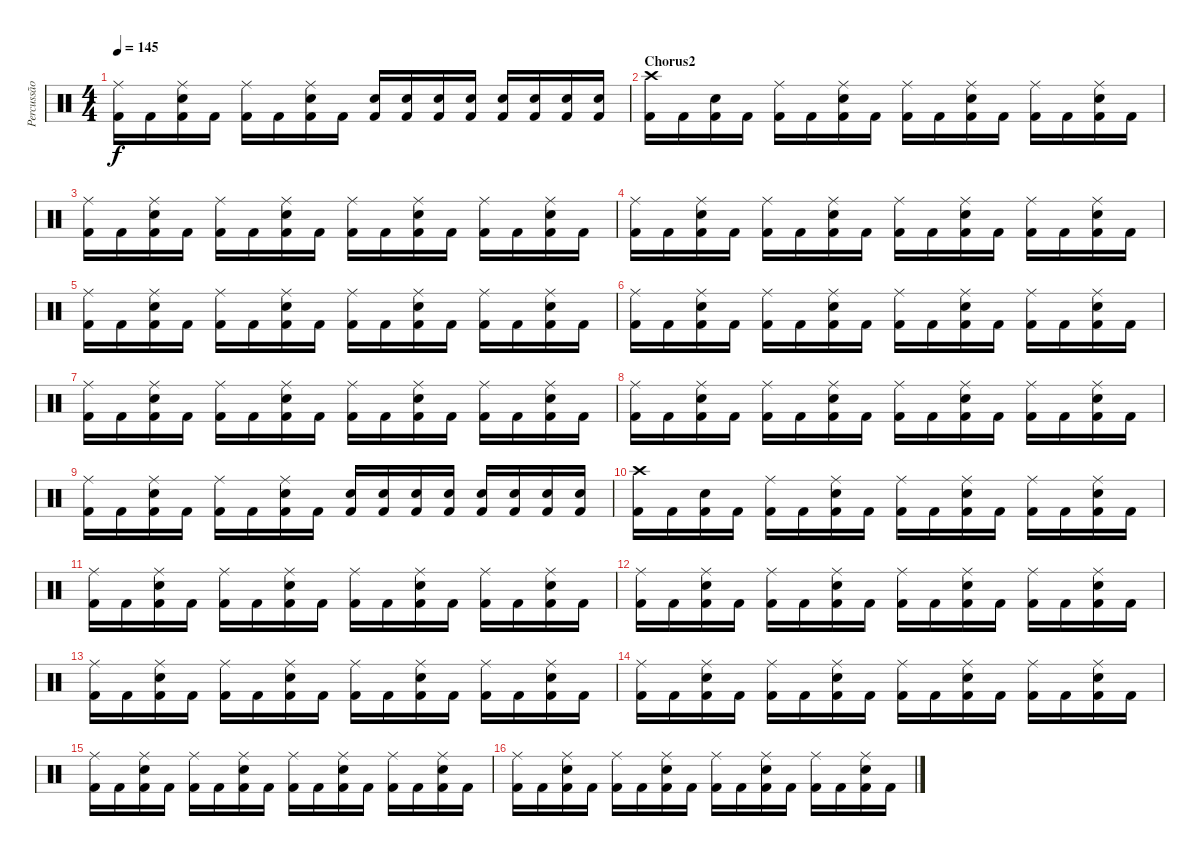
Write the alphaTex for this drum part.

\track ("Percussão" "Percussão") {instrument percussion}
\staff {score}
\articulation defaults
\ts (4 4)
\tempo 145
\clef neutral
\ks c
("Kick (hit) 2" "Ride (middle)").16{dy f} "Kick (hit) 2".16 ("Kick (hit) 2" "Snare (hit) 2" "Ride (middle)").16 "Kick (hit) 2".16 ("Kick (hit) 2" "Ride (middle)").16 "Kick (hit) 2".16 ("Kick (hit) 2" "Snare (hit) 2" "Ride (middle)").16 "Kick (hit) 2".16 ("Kick (hit) 2" "Snare (hit) 2").16 ("Kick (hit) 2" "Snare (hit) 2").16 ("Kick (hit) 2" "Snare (hit) 2").16 ("Kick (hit) 2" "Snare (hit) 2").16 ("Kick (hit) 2" "Snare (hit) 2").16 ("Kick (hit) 2" "Snare (hit) 2").16 ("Kick (hit) 2" "Snare (hit) 2").16 ("Kick (hit) 2" "Snare (hit) 2").16 |
\section ("" "Chorus2")
("Kick (hit) 2" "Crash high (hit)").16 "Kick (hit) 2".16 ("Kick (hit) 2" "Snare (hit) 2").16 "Kick (hit) 2".16 ("Kick (hit) 2" "Ride (middle)").16 "Kick (hit) 2".16 ("Kick (hit) 2" "Snare (hit) 2" "Ride (middle)").16 "Kick (hit) 2".16 ("Kick (hit) 2" "Ride (middle)").16 "Kick (hit) 2".16 ("Kick (hit) 2" "Snare (hit) 2" "Ride (middle)").16 "Kick (hit) 2".16 ("Kick (hit) 2" "Ride (middle)").16 "Kick (hit) 2".16 ("Kick (hit) 2" "Snare (hit) 2" "Ride (middle)").16 "Kick (hit) 2".16 |
("Kick (hit) 2" "Ride (middle)").16 "Kick (hit) 2".16 ("Kick (hit) 2" "Snare (hit) 2" "Ride (middle)").16 "Kick (hit) 2".16 ("Kick (hit) 2" "Ride (middle)").16 "Kick (hit) 2".16 ("Kick (hit) 2" "Snare (hit) 2" "Ride (middle)").16 "Kick (hit) 2".16 ("Kick (hit) 2" "Ride (middle)").16 "Kick (hit) 2".16 ("Kick (hit) 2" "Snare (hit) 2" "Ride (middle)").16 "Kick (hit) 2".16 ("Kick (hit) 2" "Ride (middle)").16 "Kick (hit) 2".16 ("Kick (hit) 2" "Snare (hit) 2" "Ride (middle)").16 "Kick (hit) 2".16 |
("Kick (hit) 2" "Ride (middle)").16 "Kick (hit) 2".16 ("Kick (hit) 2" "Snare (hit) 2" "Ride (middle)").16 "Kick (hit) 2".16 ("Kick (hit) 2" "Ride (middle)").16 "Kick (hit) 2".16 ("Kick (hit) 2" "Snare (hit) 2" "Ride (middle)").16 "Kick (hit) 2".16 ("Kick (hit) 2" "Ride (middle)").16 "Kick (hit) 2".16 ("Kick (hit) 2" "Snare (hit) 2" "Ride (middle)").16 "Kick (hit) 2".16 ("Kick (hit) 2" "Ride (middle)").16 "Kick (hit) 2".16 ("Kick (hit) 2" "Snare (hit) 2" "Ride (middle)").16 "Kick (hit) 2".16 |
("Kick (hit) 2" "Ride (middle)").16 "Kick (hit) 2".16 ("Kick (hit) 2" "Snare (hit) 2" "Ride (middle)").16 "Kick (hit) 2".16 ("Kick (hit) 2" "Ride (middle)").16 "Kick (hit) 2".16 ("Kick (hit) 2" "Snare (hit) 2" "Ride (middle)").16 "Kick (hit) 2".16 ("Kick (hit) 2" "Ride (middle)").16 "Kick (hit) 2".16 ("Kick (hit) 2" "Snare (hit) 2" "Ride (middle)").16 "Kick (hit) 2".16 ("Kick (hit) 2" "Ride (middle)").16 "Kick (hit) 2".16 ("Kick (hit) 2" "Snare (hit) 2" "Ride (middle)").16 "Kick (hit) 2".16 |
("Kick (hit) 2" "Ride (middle)").16 "Kick (hit) 2".16 ("Kick (hit) 2" "Snare (hit) 2" "Ride (middle)").16 "Kick (hit) 2".16 ("Kick (hit) 2" "Ride (middle)").16 "Kick (hit) 2".16 ("Kick (hit) 2" "Snare (hit) 2" "Ride (middle)").16 "Kick (hit) 2".16 ("Kick (hit) 2" "Ride (middle)").16 "Kick (hit) 2".16 ("Kick (hit) 2" "Snare (hit) 2" "Ride (middle)").16 "Kick (hit) 2".16 ("Kick (hit) 2" "Ride (middle)").16 "Kick (hit) 2".16 ("Kick (hit) 2" "Snare (hit) 2" "Ride (middle)").16 "Kick (hit) 2".16 |
("Kick (hit) 2" "Ride (middle)").16 "Kick (hit) 2".16 ("Kick (hit) 2" "Snare (hit) 2" "Ride (middle)").16 "Kick (hit) 2".16 ("Kick (hit) 2" "Ride (middle)").16 "Kick (hit) 2".16 ("Kick (hit) 2" "Snare (hit) 2" "Ride (middle)").16 "Kick (hit) 2".16 ("Kick (hit) 2" "Ride (middle)").16 "Kick (hit) 2".16 ("Kick (hit) 2" "Snare (hit) 2" "Ride (middle)").16 "Kick (hit) 2".16 ("Kick (hit) 2" "Ride (middle)").16 "Kick (hit) 2".16 ("Kick (hit) 2" "Snare (hit) 2" "Ride (middle)").16 "Kick (hit) 2".16 |
("Kick (hit) 2" "Ride (middle)").16 "Kick (hit) 2".16 ("Kick (hit) 2" "Snare (hit) 2" "Ride (middle)").16 "Kick (hit) 2".16 ("Kick (hit) 2" "Ride (middle)").16 "Kick (hit) 2".16 ("Kick (hit) 2" "Snare (hit) 2" "Ride (middle)").16 "Kick (hit) 2".16 ("Kick (hit) 2" "Ride (middle)").16 "Kick (hit) 2".16 ("Kick (hit) 2" "Snare (hit) 2" "Ride (middle)").16 "Kick (hit) 2".16 ("Kick (hit) 2" "Ride (middle)").16 "Kick (hit) 2".16 ("Kick (hit) 2" "Snare (hit) 2" "Ride (middle)").16 "Kick (hit) 2".16 |
("Kick (hit) 2" "Ride (middle)").16 "Kick (hit) 2".16 ("Kick (hit) 2" "Snare (hit) 2" "Ride (middle)").16 "Kick (hit) 2".16 ("Kick (hit) 2" "Ride (middle)").16 "Kick (hit) 2".16 ("Kick (hit) 2" "Snare (hit) 2" "Ride (middle)").16 "Kick (hit) 2".16 ("Kick (hit) 2" "Snare (hit) 2").16 ("Kick (hit) 2" "Snare (hit) 2").16 ("Kick (hit) 2" "Snare (hit) 2").16 ("Kick (hit) 2" "Snare (hit) 2").16 ("Kick (hit) 2" "Snare (hit) 2").16 ("Kick (hit) 2" "Snare (hit) 2").16 ("Kick (hit) 2" "Snare (hit) 2").16 ("Kick (hit) 2" "Snare (hit) 2").16 |
("Kick (hit) 2" "Crash high (hit)").16 "Kick (hit) 2".16 ("Kick (hit) 2" "Snare (hit) 2").16 "Kick (hit) 2".16 ("Kick (hit) 2" "Ride (middle)").16 "Kick (hit) 2".16 ("Kick (hit) 2" "Snare (hit) 2" "Ride (middle)").16 "Kick (hit) 2".16 ("Kick (hit) 2" "Ride (middle)").16 "Kick (hit) 2".16 ("Kick (hit) 2" "Snare (hit) 2" "Ride (middle)").16 "Kick (hit) 2".16 ("Kick (hit) 2" "Ride (middle)").16 "Kick (hit) 2".16 ("Kick (hit) 2" "Snare (hit) 2" "Ride (middle)").16 "Kick (hit) 2".16 |
("Kick (hit) 2" "Ride (middle)").16 "Kick (hit) 2".16 ("Kick (hit) 2" "Snare (hit) 2" "Ride (middle)").16 "Kick (hit) 2".16 ("Kick (hit) 2" "Ride (middle)").16 "Kick (hit) 2".16 ("Kick (hit) 2" "Snare (hit) 2" "Ride (middle)").16 "Kick (hit) 2".16 ("Kick (hit) 2" "Ride (middle)").16 "Kick (hit) 2".16 ("Kick (hit) 2" "Snare (hit) 2" "Ride (middle)").16 "Kick (hit) 2".16 ("Kick (hit) 2" "Ride (middle)").16 "Kick (hit) 2".16 ("Kick (hit) 2" "Snare (hit) 2" "Ride (middle)").16 "Kick (hit) 2".16 |
("Kick (hit) 2" "Ride (middle)").16 "Kick (hit) 2".16 ("Kick (hit) 2" "Snare (hit) 2" "Ride (middle)").16 "Kick (hit) 2".16 ("Kick (hit) 2" "Ride (middle)").16 "Kick (hit) 2".16 ("Kick (hit) 2" "Snare (hit) 2" "Ride (middle)").16 "Kick (hit) 2".16 ("Kick (hit) 2" "Ride (middle)").16 "Kick (hit) 2".16 ("Kick (hit) 2" "Snare (hit) 2" "Ride (middle)").16 "Kick (hit) 2".16 ("Kick (hit) 2" "Ride (middle)").16 "Kick (hit) 2".16 ("Kick (hit) 2" "Snare (hit) 2" "Ride (middle)").16 "Kick (hit) 2".16 |
("Kick (hit) 2" "Ride (middle)").16 "Kick (hit) 2".16 ("Kick (hit) 2" "Snare (hit) 2" "Ride (middle)").16 "Kick (hit) 2".16 ("Kick (hit) 2" "Ride (middle)").16 "Kick (hit) 2".16 ("Kick (hit) 2" "Snare (hit) 2" "Ride (middle)").16 "Kick (hit) 2".16 ("Kick (hit) 2" "Ride (middle)").16 "Kick (hit) 2".16 ("Kick (hit) 2" "Snare (hit) 2" "Ride (middle)").16 "Kick (hit) 2".16 ("Kick (hit) 2" "Ride (middle)").16 "Kick (hit) 2".16 ("Kick (hit) 2" "Snare (hit) 2" "Ride (middle)").16 "Kick (hit) 2".16 |
("Kick (hit) 2" "Ride (middle)").16 "Kick (hit) 2".16 ("Kick (hit) 2" "Snare (hit) 2" "Ride (middle)").16 "Kick (hit) 2".16 ("Kick (hit) 2" "Ride (middle)").16 "Kick (hit) 2".16 ("Kick (hit) 2" "Snare (hit) 2" "Ride (middle)").16 "Kick (hit) 2".16 ("Kick (hit) 2" "Ride (middle)").16 "Kick (hit) 2".16 ("Kick (hit) 2" "Snare (hit) 2" "Ride (middle)").16 "Kick (hit) 2".16 ("Kick (hit) 2" "Ride (middle)").16 "Kick (hit) 2".16 ("Kick (hit) 2" "Snare (hit) 2" "Ride (middle)").16 "Kick (hit) 2".16 |
("Kick (hit) 2" "Ride (middle)").16 "Kick (hit) 2".16 ("Kick (hit) 2" "Snare (hit) 2" "Ride (middle)").16 "Kick (hit) 2".16 ("Kick (hit) 2" "Ride (middle)").16 "Kick (hit) 2".16 ("Kick (hit) 2" "Snare (hit) 2" "Ride (middle)").16 "Kick (hit) 2".16 ("Kick (hit) 2" "Ride (middle)").16 "Kick (hit) 2".16 ("Kick (hit) 2" "Snare (hit) 2" "Ride (middle)").16 "Kick (hit) 2".16 ("Kick (hit) 2" "Ride (middle)").16 "Kick (hit) 2".16 ("Kick (hit) 2" "Snare (hit) 2" "Ride (middle)").16 "Kick (hit) 2".16 |
("Kick (hit) 2" "Ride (middle)").16 "Kick (hit) 2".16 ("Kick (hit) 2" "Snare (hit) 2" "Ride (middle)").16 "Kick (hit) 2".16 ("Kick (hit) 2" "Ride (middle)").16 "Kick (hit) 2".16 ("Kick (hit) 2" "Snare (hit) 2" "Ride (middle)").16 "Kick (hit) 2".16 ("Kick (hit) 2" "Ride (middle)").16 "Kick (hit) 2".16 ("Kick (hit) 2" "Snare (hit) 2" "Ride (middle)").16 "Kick (hit) 2".16 ("Kick (hit) 2" "Ride (middle)").16 "Kick (hit) 2".16 ("Kick (hit) 2" "Snare (hit) 2" "Ride (middle)").16 "Kick (hit) 2".16
